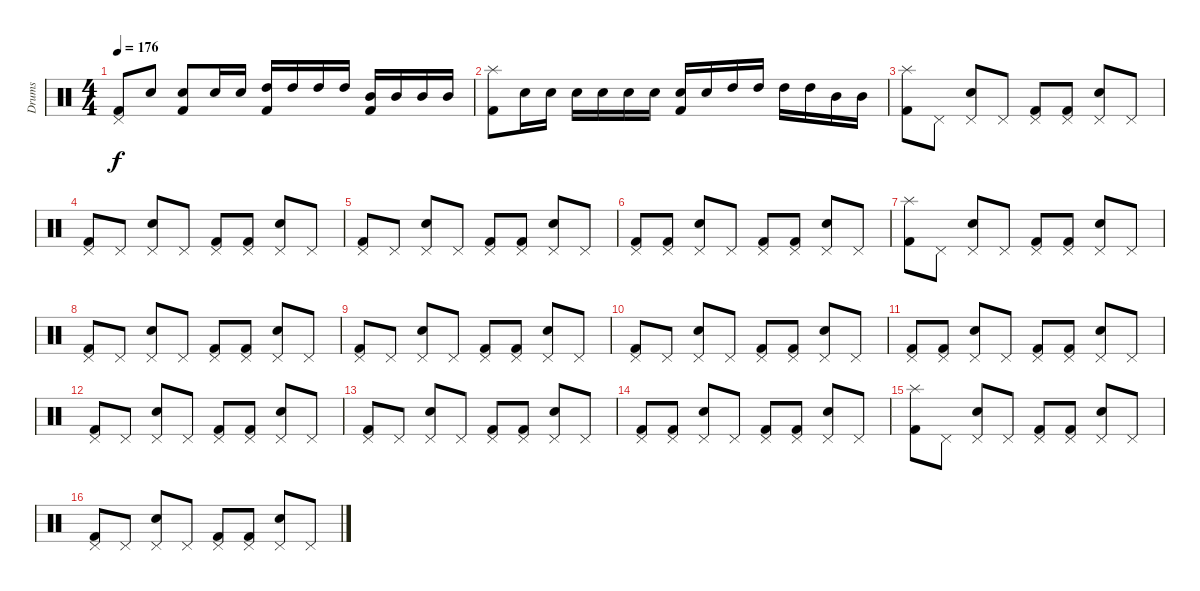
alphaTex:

\track ("Drums" "Drums") {instrument percussion}
\staff {score}
\articulation defaults
\ts (4 4)
\tempo 176
\clef neutral
\ks c
("Pedal Hi-Hat (hit)" "Kick (hit) 2").8{dy f} "Snare (hit) 2".8 ("Kick (hit) 2" "Snare (hit) 2").8 "Snare (hit) 2".16 "Snare (hit) 2".16 ("High Tom (hit)" "Kick (hit) 2").16 "High Tom (hit)".16 "High Tom (hit)".16 "High Tom (hit)".16 ("Mid Tom (hit)" "Kick (hit) 2").16 "Mid Tom (hit)".16 "Mid Tom (hit)".16 "Mid Tom (hit)".16 |
("Splash (hit)" "Kick (hit) 2").8 "Snare (hit) 2".16 "Snare (hit) 2".16 "Snare (hit) 2".16 "Snare (hit) 2".16 "Snare (hit) 2".16 "Snare (hit) 2".16 ("Snare (hit) 2" "Kick (hit) 2").16 "Snare (hit) 2".16 "High Tom (hit)".16 "High Tom (hit)".16 "High Tom (hit)".16 "High Tom (hit)".16 "Mid Tom (hit)".16 "Mid Tom (hit)".16 |
("Splash (hit)" "Kick (hit) 2").8 "Pedal Hi-Hat (hit)".8 ("Snare (hit) 2" "Pedal Hi-Hat (hit)").8 "Pedal Hi-Hat (hit)".8 ("Pedal Hi-Hat (hit)" "Kick (hit) 2").8 ("Kick (hit) 2" "Pedal Hi-Hat (hit)").8 ("Pedal Hi-Hat (hit)" "Snare (hit) 2").8 "Pedal Hi-Hat (hit)".8 |
("Pedal Hi-Hat (hit)" "Kick (hit) 2").8 "Pedal Hi-Hat (hit)".8 ("Snare (hit) 2" "Pedal Hi-Hat (hit)").8 "Pedal Hi-Hat (hit)".8 ("Pedal Hi-Hat (hit)" "Kick (hit) 2").8 ("Kick (hit) 2" "Pedal Hi-Hat (hit)").8 ("Pedal Hi-Hat (hit)" "Snare (hit) 2").8 "Pedal Hi-Hat (hit)".8 |
("Pedal Hi-Hat (hit)" "Kick (hit) 2").8 "Pedal Hi-Hat (hit)".8 ("Snare (hit) 2" "Pedal Hi-Hat (hit)").8 "Pedal Hi-Hat (hit)".8 ("Pedal Hi-Hat (hit)" "Kick (hit) 2").8 ("Kick (hit) 2" "Pedal Hi-Hat (hit)").8 ("Pedal Hi-Hat (hit)" "Snare (hit) 2").8 "Pedal Hi-Hat (hit)".8 |
("Pedal Hi-Hat (hit)" "Kick (hit) 2").8 ("Pedal Hi-Hat (hit)" "Kick (hit) 2").8 ("Snare (hit) 2" "Pedal Hi-Hat (hit)").8 "Pedal Hi-Hat (hit)".8 ("Pedal Hi-Hat (hit)" "Kick (hit) 2").8 ("Kick (hit) 2" "Pedal Hi-Hat (hit)").8 ("Pedal Hi-Hat (hit)" "Snare (hit) 2").8 "Pedal Hi-Hat (hit)".8 |
("Splash (hit)" "Kick (hit) 2").8 "Pedal Hi-Hat (hit)".8 ("Snare (hit) 2" "Pedal Hi-Hat (hit)").8 "Pedal Hi-Hat (hit)".8 ("Pedal Hi-Hat (hit)" "Kick (hit) 2").8 ("Kick (hit) 2" "Pedal Hi-Hat (hit)").8 ("Pedal Hi-Hat (hit)" "Snare (hit) 2").8 "Pedal Hi-Hat (hit)".8 |
("Pedal Hi-Hat (hit)" "Kick (hit) 2").8 "Pedal Hi-Hat (hit)".8 ("Snare (hit) 2" "Pedal Hi-Hat (hit)").8 "Pedal Hi-Hat (hit)".8 ("Pedal Hi-Hat (hit)" "Kick (hit) 2").8 ("Kick (hit) 2" "Pedal Hi-Hat (hit)").8 ("Pedal Hi-Hat (hit)" "Snare (hit) 2").8 "Pedal Hi-Hat (hit)".8 |
("Pedal Hi-Hat (hit)" "Kick (hit) 2").8 "Pedal Hi-Hat (hit)".8 ("Snare (hit) 2" "Pedal Hi-Hat (hit)").8 "Pedal Hi-Hat (hit)".8 ("Pedal Hi-Hat (hit)" "Kick (hit) 2").8 ("Kick (hit) 2" "Pedal Hi-Hat (hit)").8 ("Pedal Hi-Hat (hit)" "Snare (hit) 2").8 "Pedal Hi-Hat (hit)".8 |
("Pedal Hi-Hat (hit)" "Kick (hit) 2").8 "Pedal Hi-Hat (hit)".8 ("Snare (hit) 2" "Pedal Hi-Hat (hit)").8 "Pedal Hi-Hat (hit)".8 ("Pedal Hi-Hat (hit)" "Kick (hit) 2").8 ("Kick (hit) 2" "Pedal Hi-Hat (hit)").8 ("Pedal Hi-Hat (hit)" "Snare (hit) 2").8 "Pedal Hi-Hat (hit)".8 |
("Pedal Hi-Hat (hit)" "Kick (hit) 2").8 ("Pedal Hi-Hat (hit)" "Kick (hit) 2").8 ("Snare (hit) 2" "Pedal Hi-Hat (hit)").8 "Pedal Hi-Hat (hit)".8 ("Pedal Hi-Hat (hit)" "Kick (hit) 2").8 ("Kick (hit) 2" "Pedal Hi-Hat (hit)").8 ("Pedal Hi-Hat (hit)" "Snare (hit) 2").8 "Pedal Hi-Hat (hit)".8 |
("Pedal Hi-Hat (hit)" "Kick (hit) 2").8 "Pedal Hi-Hat (hit)".8 ("Snare (hit) 2" "Pedal Hi-Hat (hit)").8 "Pedal Hi-Hat (hit)".8 ("Pedal Hi-Hat (hit)" "Kick (hit) 2").8 ("Kick (hit) 2" "Pedal Hi-Hat (hit)").8 ("Pedal Hi-Hat (hit)" "Snare (hit) 2").8 "Pedal Hi-Hat (hit)".8 |
("Pedal Hi-Hat (hit)" "Kick (hit) 2").8 "Pedal Hi-Hat (hit)".8 ("Snare (hit) 2" "Pedal Hi-Hat (hit)").8 "Pedal Hi-Hat (hit)".8 ("Pedal Hi-Hat (hit)" "Kick (hit) 2").8 ("Kick (hit) 2" "Pedal Hi-Hat (hit)").8 ("Pedal Hi-Hat (hit)" "Snare (hit) 2").8 "Pedal Hi-Hat (hit)".8 |
("Pedal Hi-Hat (hit)" "Kick (hit) 2").8 ("Pedal Hi-Hat (hit)" "Kick (hit) 2").8 ("Snare (hit) 2" "Pedal Hi-Hat (hit)").8 "Pedal Hi-Hat (hit)".8 ("Pedal Hi-Hat (hit)" "Kick (hit) 2").8 ("Kick (hit) 2" "Pedal Hi-Hat (hit)").8 ("Pedal Hi-Hat (hit)" "Snare (hit) 2").8 "Pedal Hi-Hat (hit)".8 |
("Splash (hit)" "Kick (hit) 2").8 "Pedal Hi-Hat (hit)".8 ("Snare (hit) 2" "Pedal Hi-Hat (hit)").8 "Pedal Hi-Hat (hit)".8 ("Pedal Hi-Hat (hit)" "Kick (hit) 2").8 ("Kick (hit) 2" "Pedal Hi-Hat (hit)").8 ("Pedal Hi-Hat (hit)" "Snare (hit) 2").8 "Pedal Hi-Hat (hit)".8 |
("Pedal Hi-Hat (hit)" "Kick (hit) 2").8 "Pedal Hi-Hat (hit)".8 ("Snare (hit) 2" "Pedal Hi-Hat (hit)").8 "Pedal Hi-Hat (hit)".8 ("Pedal Hi-Hat (hit)" "Kick (hit) 2").8 ("Kick (hit) 2" "Pedal Hi-Hat (hit)").8 ("Pedal Hi-Hat (hit)" "Snare (hit) 2").8 "Pedal Hi-Hat (hit)".8
